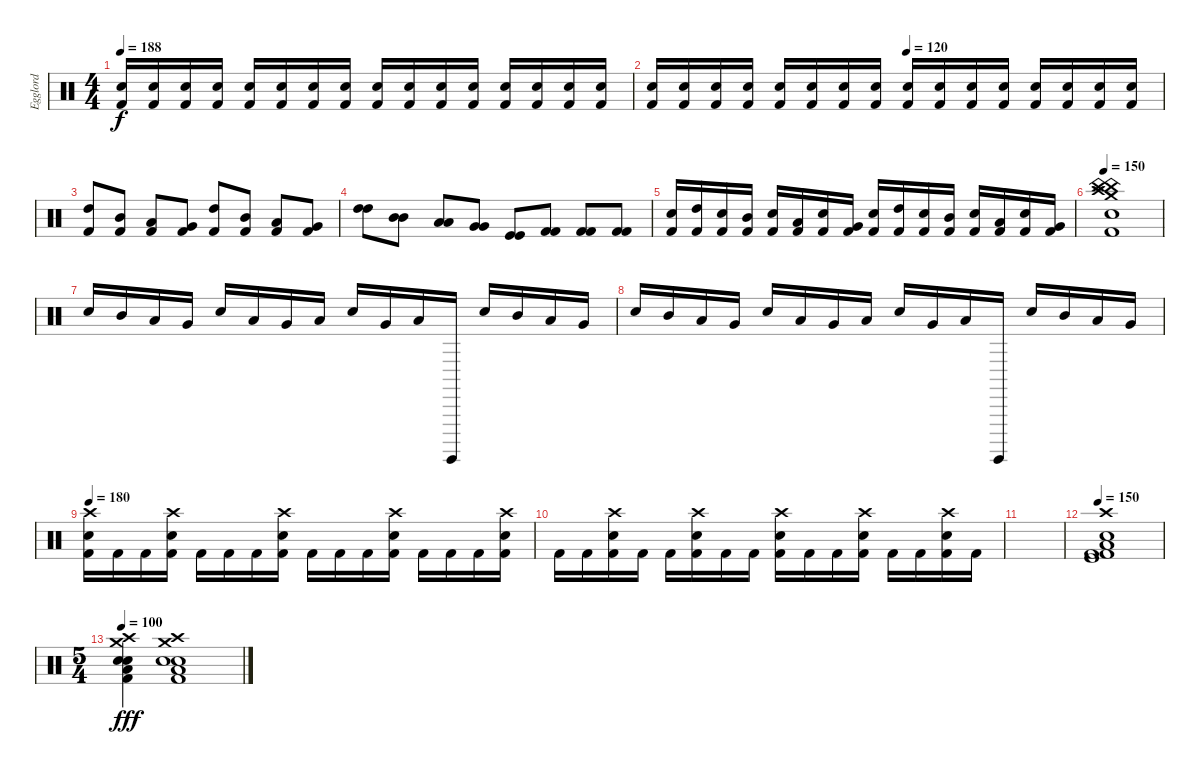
\track ("Egglord" "Egglord") {instrument percussion}
\staff {score}
\articulation defaults
\ts (4 4)
\tempo 188
\clef neutral
\ks c
("Electric Snare (hit)" "Kick (hit) 2").16{dy f} ("Electric Snare (hit)" "Kick (hit) 2").16 ("Electric Snare (hit)" "Kick (hit) 2").16 ("Electric Snare (hit)" "Kick (hit) 2").16 ("Electric Snare (hit)" "Kick (hit) 2").16 ("Electric Snare (hit)" "Kick (hit) 2").16 ("Electric Snare (hit)" "Kick (hit) 2").16 ("Electric Snare (hit)" "Kick (hit) 2").16 ("Electric Snare (hit)" "Kick (hit) 2").16 ("Electric Snare (hit)" "Kick (hit) 2").16 ("Electric Snare (hit)" "Kick (hit) 2").16 ("Electric Snare (hit)" "Kick (hit) 2").16 ("Electric Snare (hit)" "Kick (hit) 2").16 ("Electric Snare (hit)" "Kick (hit) 2").16 ("Electric Snare (hit)" "Kick (hit) 2").16 ("Electric Snare (hit)" "Kick (hit) 2").16 |
\tempo (120 0.5)
("Electric Snare (hit)" "Kick (hit) 2").16{volume 9} ("Electric Snare (hit)" "Kick (hit) 2").16 ("Electric Snare (hit)" "Kick (hit) 2").16 ("Electric Snare (hit)" "Kick (hit) 2").16 ("Electric Snare (hit)" "Kick (hit) 2").16 ("Electric Snare (hit)" "Kick (hit) 2").16 ("Electric Snare (hit)" "Kick (hit) 2").16 ("Electric Snare (hit)" "Kick (hit) 2").16 ("Electric Snare (hit)" "Kick (hit) 2").16{volume 9} ("Electric Snare (hit)" "Kick (hit) 2").16 ("Electric Snare (hit)" "Kick (hit) 2").16 ("Electric Snare (hit)" "Kick (hit) 2").16 ("Electric Snare (hit)" "Kick (hit) 2").16 ("Electric Snare (hit)" "Kick (hit) 2").16 ("Electric Snare (hit)" "Kick (hit) 2").16 ("Electric Snare (hit)" "Kick (hit) 2").16 |
("High Tom (hit)" "Kick (hit) 2").8 ("Mid Tom (hit)" "Kick (hit) 2").8 ("Low Tom (hit)" "Kick (hit) 2").8 ("Very Low Tom (hit)" "Kick (hit) 2").8 ("High Tom (hit)" "Kick (hit) 2").8 ("Mid Tom (hit)" "Kick (hit) 2").8 ("Low Tom (hit)" "Kick (hit) 2").8 ("Very Low Tom (hit)" "Kick (hit) 2").8 |
("High Tom (hit)" "High Tom (hit)").8 ("Mid Tom (hit)" "Mid Tom (hit)").8 ("Low Tom (hit)" "Low Tom (hit)").8 ("Very Low Tom (hit)" "Very Low Tom (hit)").8 ("Kick (hit)" "Kick (hit)").8 ("Kick (hit) 2" "Kick (hit) 2").8 ("Kick (hit) 2" "Kick (hit) 2").8 ("Kick (hit) 2" "Kick (hit) 2").8 |
("Electric Snare (hit)" "Kick (hit) 2").16 ("High Tom (hit)" "Kick (hit) 2").16 ("Electric Snare (hit)" "Kick (hit) 2").16 ("Mid Tom (hit)" "Kick (hit) 2").16 ("Electric Snare (hit)" "Kick (hit) 2").16 ("Low Tom (hit)" "Kick (hit) 2").16 ("Electric Snare (hit)" "Kick (hit) 2").16 ("Very Low Tom (hit)" "Kick (hit) 2").16 ("Electric Snare (hit)" "Kick (hit) 2").16 ("High Tom (hit)" "Kick (hit) 2").16 ("Electric Snare (hit)" "Kick (hit) 2").16 ("Mid Tom (hit)" "Kick (hit) 2").16 ("Electric Snare (hit)" "Kick (hit) 2").16 ("Low Tom (hit)" "Kick (hit) 2").16 ("Electric Snare (hit)" "Kick (hit) 2").16 ("Very Low Tom (hit)" "Kick (hit) 2").16 |
\tempo 150
("China (hit)" "China (hit)" "Crash high (hit)" "Crash medium (hit)" "Electric Snare (hit)" "Kick (hit) 2").1 |
"Electric Snare (hit)".16 "Mid Tom (hit)".16 "Low Tom (hit)".16 "Very Low Tom (hit)".16 "Electric Snare (hit)".16 "Low Tom (hit)".16 "Very Low Tom (hit)".16 "Low Floor Tom (hit)".16 "Electric Snare (hit)".16 "Very Low Tom (hit)".16 "Low Floor Tom (hit)".16 "Surdo (hit)".16 "Electric Snare (hit)".16 "Mid Tom (hit)".16 "Low Tom (hit)".16 "Very Low Tom (hit)".16 |
"Electric Snare (hit)".16 "Mid Tom (hit)".16 "Low Tom (hit)".16 "Very Low Tom (hit)".16 "Electric Snare (hit)".16 "Low Tom (hit)".16 "Very Low Tom (hit)".16 "Low Floor Tom (hit)".16 "Electric Snare (hit)".16 "Very Low Tom (hit)".16 "Low Floor Tom (hit)".16 "Surdo (hit)".16 "Electric Snare (hit)".16 "Mid Tom (hit)".16 "Low Tom (hit)".16 "Very Low Tom (hit)".16 |
\tempo 180
("Crash high (hit)" "Electric Snare (hit)" "Kick (hit) 2").16 "Kick (hit) 2".16 "Kick (hit) 2".16 ("Crash high (hit)" "Electric Snare (hit)" "Kick (hit) 2").16 "Kick (hit) 2".16 "Kick (hit) 2".16 "Kick (hit) 2".16 ("Crash high (hit)" "Electric Snare (hit)" "Kick (hit) 2").16 "Kick (hit) 2".16 "Kick (hit) 2".16 "Kick (hit) 2".16 ("Crash high (hit)" "Electric Snare (hit)" "Kick (hit) 2").16 "Kick (hit) 2".16 "Kick (hit) 2".16 "Kick (hit) 2".16 ("Crash high (hit)" "Electric Snare (hit)" "Kick (hit) 2").16 |
"Kick (hit) 2".16 "Kick (hit) 2".16 ("Electric Snare (hit)" "Crash high (hit)" "Kick (hit) 2").16 "Kick (hit) 2".16 "Kick (hit) 2".16 ("Electric Snare (hit)" "Crash high (hit)" "Kick (hit) 2").16 "Kick (hit) 2".16 "Kick (hit) 2".16 ("Electric Snare (hit)" "Crash high (hit)" "Kick (hit) 2").16 "Kick (hit) 2".16 "Kick (hit) 2".16 ("Electric Snare (hit)" "Crash high (hit)" "Kick (hit) 2").16 "Kick (hit) 2".16 "Kick (hit) 2".16 ("Electric Snare (hit)" "Crash high (hit)" "Kick (hit) 2").16 "Kick (hit) 2".16 |
|
\tempo 150
("Kick (hit) 2" "Kick (hit)" "Low Floor Tom (hit)" "Crash high (hit)" "Electric Snare (hit)" "Kick (hit) 2").1 |
\ts (5 4)
\tempo 100
("Crash medium (hit)" "Electric Snare (hit)" "Low Floor Tom (hit)" "Crash high (hit)" "Electric Snare (hit)" "Kick (hit) 2").4{dy fff} ("Crash medium (hit)" "Electric Snare (hit)" "Low Floor Tom (hit)" "Crash high (hit)" "Electric Snare (hit)" "Kick (hit) 2").1
